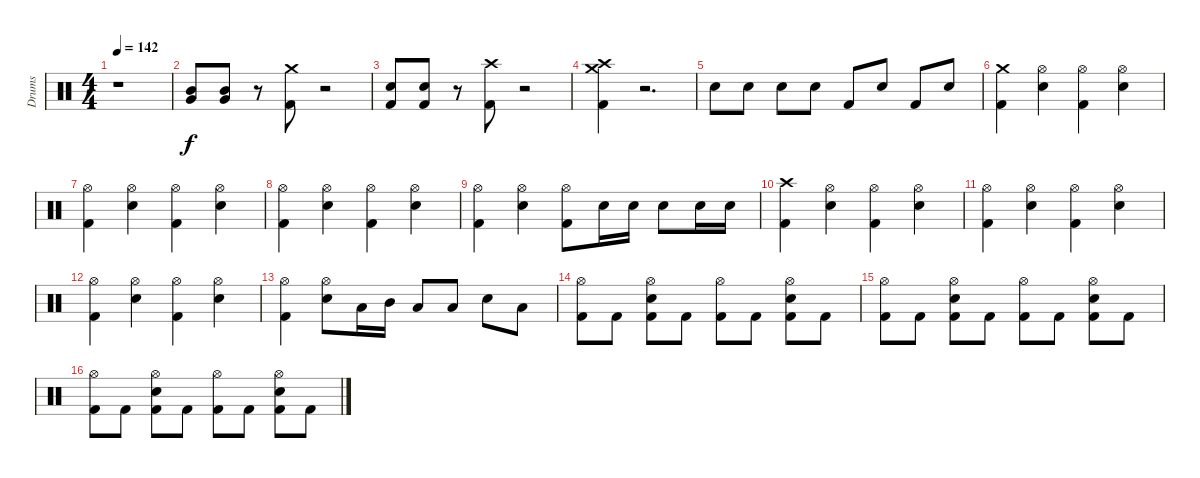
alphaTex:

\track ("Drums" "Drums") {instrument percussion}
\staff {score}
\articulation defaults
\ts (4 4)
\tempo 142
\clef neutral
\ks c
r.1{dy f} |
("Mid Tom (hit)" "Very Low Tom (hit)").8 ("Mid Tom (hit)" "Very Low Tom (hit)").8 r.8 ("Crash medium (hit)" "Kick (hit) 2").8 r.2 |
("Snare (hit) 2" "Kick (hit) 2").8 ("Snare (hit) 2" "Kick (hit) 2").8 r.8 ("Crash high (hit)" "Kick (hit) 2").8 r.2 |
("Kick (hit) 2" "Crash high (hit)" "Crash medium (hit)").4 r.2{d} |
"Snare (hit) 2".8 "Snare (hit) 2".8 "Snare (hit) 2".8 "Snare (hit) 2".8 "Kick (hit) 2".8 "Snare (hit) 2".8 "Kick (hit) 2".8 "Snare (hit) 2".8 |
("Kick (hit) 2" "Crash medium (hit)").4 ("Snare (hit) 2" "Hi-Hat (open)").4 ("Kick (hit) 2" "Hi-Hat (open)").4 ("Snare (hit) 2" "Hi-Hat (open)").4 |
("Kick (hit) 2" "Hi-Hat (open)").4 ("Snare (hit) 2" "Hi-Hat (open)").4 ("Kick (hit) 2" "Hi-Hat (open)").4 ("Snare (hit) 2" "Hi-Hat (open)").4 |
("Kick (hit) 2" "Hi-Hat (open)").4 ("Snare (hit) 2" "Hi-Hat (open)").4 ("Kick (hit) 2" "Hi-Hat (open)").4 ("Snare (hit) 2" "Hi-Hat (open)").4 |
("Kick (hit) 2" "Hi-Hat (open)").4 ("Snare (hit) 2" "Hi-Hat (open)").4 ("Kick (hit) 2" "Hi-Hat (open)").8 "Snare (hit) 2".16 "Snare (hit) 2".16 "Snare (hit) 2".8 "Snare (hit) 2".16 "Snare (hit) 2".16 |
("Kick (hit) 2" "Crash high (hit)").4 ("Snare (hit) 2" "Hi-Hat (open)").4 ("Kick (hit) 2" "Hi-Hat (open)").4 ("Snare (hit) 2" "Hi-Hat (open)").4 |
("Kick (hit) 2" "Hi-Hat (open)").4 ("Snare (hit) 2" "Hi-Hat (open)").4 ("Kick (hit) 2" "Hi-Hat (open)").4 ("Snare (hit) 2" "Hi-Hat (open)").4 |
("Kick (hit) 2" "Hi-Hat (open)").4 ("Snare (hit) 2" "Hi-Hat (open)").4 ("Kick (hit) 2" "Hi-Hat (open)").4 ("Snare (hit) 2" "Hi-Hat (open)").4 |
("Kick (hit) 2" "Hi-Hat (open)").4 ("Snare (hit) 2" "Hi-Hat (open)").8 "Low Tom (hit)".16 "Mid Tom (hit)".16 "Low Tom (hit)".8 "Low Tom (hit)".8 "Snare (hit) 2".8 "Low Tom (hit)".8 |
("Kick (hit) 2" "Hi-Hat (open)").8 "Kick (hit) 2".8 ("Kick (hit) 2" "Snare (hit) 2" "Hi-Hat (open)").8 "Kick (hit) 2".8 ("Kick (hit) 2" "Hi-Hat (open)").8 "Kick (hit) 2".8 ("Kick (hit) 2" "Snare (hit) 2" "Hi-Hat (open)").8 "Kick (hit) 2".8 |
("Kick (hit) 2" "Hi-Hat (open)").8 "Kick (hit) 2".8 ("Kick (hit) 2" "Snare (hit) 2" "Hi-Hat (open)").8 "Kick (hit) 2".8 ("Kick (hit) 2" "Hi-Hat (open)").8 "Kick (hit) 2".8 ("Kick (hit) 2" "Snare (hit) 2" "Hi-Hat (open)").8 "Kick (hit) 2".8 |
("Kick (hit) 2" "Hi-Hat (open)").8 "Kick (hit) 2".8 ("Kick (hit) 2" "Snare (hit) 2" "Hi-Hat (open)").8 "Kick (hit) 2".8 ("Kick (hit) 2" "Hi-Hat (open)").8 "Kick (hit) 2".8 ("Kick (hit) 2" "Snare (hit) 2" "Hi-Hat (open)").8 "Kick (hit) 2".8
